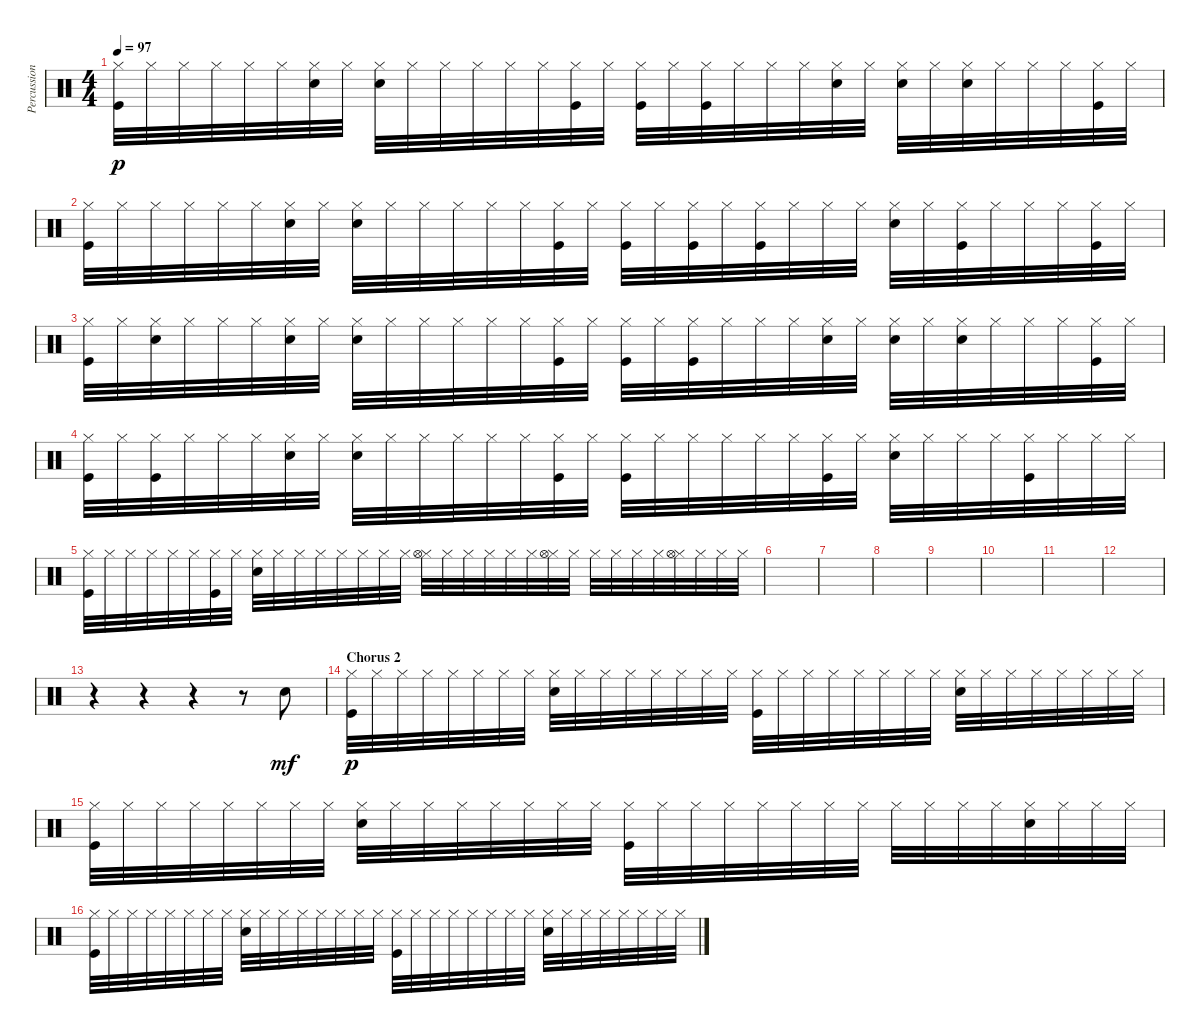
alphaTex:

\track ("Percussion" "Percussion") {instrument percussion}
\staff {score}
\articulation defaults
\ts (4 4)
\tempo 97
\clef neutral
\ks c
("Hi-Hat (closed)" "Kick (hit)").32{dy p} "Hi-Hat (closed)".32 "Hi-Hat (closed)".32 "Hi-Hat (closed)".32 "Hi-Hat (closed)".32 "Hi-Hat (closed)".32 ("Hi-Hat (closed)" "Electric Snare (hit)").32 "Hi-Hat (closed)".32 ("Hi-Hat (closed)" "Electric Snare (hit)").32 "Hi-Hat (closed)".32 "Hi-Hat (closed)".32 "Hi-Hat (closed)".32 "Hi-Hat (closed)".32 "Hi-Hat (closed)".32 ("Hi-Hat (closed)" "Kick (hit)").32 "Hi-Hat (closed)".32 ("Hi-Hat (closed)" "Kick (hit)").32 "Hi-Hat (closed)".32 ("Hi-Hat (closed)" "Kick (hit)").32 "Hi-Hat (closed)".32 "Hi-Hat (closed)".32 "Hi-Hat (closed)".32 ("Hi-Hat (closed)" "Electric Snare (hit)").32 "Hi-Hat (closed)".32 ("Hi-Hat (closed)" "Electric Snare (hit)").32 "Hi-Hat (closed)".32 ("Hi-Hat (closed)" "Electric Snare (hit)").32 "Hi-Hat (closed)".32 "Hi-Hat (closed)".32 "Hi-Hat (closed)".32 ("Hi-Hat (closed)" "Kick (hit)").32 "Hi-Hat (closed)".32 |
("Hi-Hat (closed)" "Kick (hit)").32 "Hi-Hat (closed)".32 "Hi-Hat (closed)".32 "Hi-Hat (closed)".32 "Hi-Hat (closed)".32 "Hi-Hat (closed)".32 ("Hi-Hat (closed)" "Electric Snare (hit)").32 "Hi-Hat (closed)".32 ("Hi-Hat (closed)" "Electric Snare (hit)").32 "Hi-Hat (closed)".32 "Hi-Hat (closed)".32 "Hi-Hat (closed)".32 "Hi-Hat (closed)".32 "Hi-Hat (closed)".32 ("Hi-Hat (closed)" "Kick (hit)").32 "Hi-Hat (closed)".32 ("Hi-Hat (closed)" "Kick (hit)").32 "Hi-Hat (closed)".32 ("Hi-Hat (closed)" "Kick (hit)").32 "Hi-Hat (closed)".32 ("Hi-Hat (closed)" "Kick (hit)").32 "Hi-Hat (closed)".32 "Hi-Hat (closed)".32 "Hi-Hat (closed)".32 ("Hi-Hat (closed)" "Electric Snare (hit)").32 "Hi-Hat (closed)".32 ("Hi-Hat (closed)" "Kick (hit)").32 "Hi-Hat (closed)".32 "Hi-Hat (closed)".32 "Hi-Hat (closed)".32 ("Hi-Hat (closed)" "Kick (hit)").32 "Hi-Hat (closed)".32 |
("Hi-Hat (closed)" "Kick (hit)").32 "Hi-Hat (closed)".32 ("Hi-Hat (closed)" "Electric Snare (hit)").32 "Hi-Hat (closed)".32 "Hi-Hat (closed)".32 "Hi-Hat (closed)".32 ("Hi-Hat (closed)" "Electric Snare (hit)").32 "Hi-Hat (closed)".32 ("Hi-Hat (closed)" "Electric Snare (hit)").32 "Hi-Hat (closed)".32 "Hi-Hat (closed)".32 "Hi-Hat (closed)".32 "Hi-Hat (closed)".32 "Hi-Hat (closed)".32 ("Hi-Hat (closed)" "Kick (hit)").32 "Hi-Hat (closed)".32 ("Hi-Hat (closed)" "Kick (hit)").32 "Hi-Hat (closed)".32 ("Hi-Hat (closed)" "Kick (hit)").32 "Hi-Hat (closed)".32 "Hi-Hat (closed)".32 "Hi-Hat (closed)".32 ("Hi-Hat (closed)" "Electric Snare (hit)").32 "Hi-Hat (closed)".32 ("Hi-Hat (closed)" "Electric Snare (hit)").32 "Hi-Hat (closed)".32 ("Hi-Hat (closed)" "Electric Snare (hit)").32 "Hi-Hat (closed)".32 "Hi-Hat (closed)".32 "Hi-Hat (closed)".32 ("Hi-Hat (closed)" "Kick (hit)").32 "Hi-Hat (closed)".32 |
("Hi-Hat (closed)" "Kick (hit)").32 "Hi-Hat (closed)".32 ("Hi-Hat (closed)" "Kick (hit)").32 "Hi-Hat (closed)".32 "Hi-Hat (closed)".32 "Hi-Hat (closed)".32 ("Hi-Hat (closed)" "Electric Snare (hit)").32 "Hi-Hat (closed)".32 ("Hi-Hat (closed)" "Electric Snare (hit)").32 "Hi-Hat (closed)".32 "Hi-Hat (closed)".32 "Hi-Hat (closed)".32 "Hi-Hat (closed)".32 "Hi-Hat (closed)".32 ("Hi-Hat (closed)" "Kick (hit)").32 "Hi-Hat (closed)".32 ("Hi-Hat (closed)" "Kick (hit)").32 "Hi-Hat (closed)".32 "Hi-Hat (closed)".32 "Hi-Hat (closed)".32 "Hi-Hat (closed)".32 "Hi-Hat (closed)".32 ("Hi-Hat (closed)" "Kick (hit)").32 "Hi-Hat (closed)".32 ("Hi-Hat (closed)" "Electric Snare (hit)").32 "Hi-Hat (closed)".32 "Hi-Hat (closed)".32 "Hi-Hat (closed)".32 ("Hi-Hat (closed)" "Kick (hit)").32 "Hi-Hat (closed)".32 "Hi-Hat (closed)".32 "Hi-Hat (closed)".32 |
("Hi-Hat (closed)" "Kick (hit)").32 "Hi-Hat (closed)".32 "Hi-Hat (closed)".32 "Hi-Hat (closed)".32 "Hi-Hat (closed)".32 "Hi-Hat (closed)".32 ("Hi-Hat (closed)" "Kick (hit)").32 "Hi-Hat (closed)".32 ("Hi-Hat (closed)" "Electric Snare (hit)").32 "Hi-Hat (closed)".32 "Hi-Hat (closed)".32 "Hi-Hat (closed)".32 "Hi-Hat (closed)".32 "Hi-Hat (closed)".32 "Hi-Hat (closed)".32 "Hi-Hat (closed)".32 ("Hi-Hat (closed)" "Hi-Hat (open)").32 "Hi-Hat (closed)".32 "Hi-Hat (closed)".32 "Hi-Hat (closed)".32 "Hi-Hat (closed)".32 "Hi-Hat (closed)".32 ("Hi-Hat (closed)" "Hi-Hat (open)").32 "Hi-Hat (closed)".32 "Hi-Hat (closed)".32 "Hi-Hat (closed)".32 "Hi-Hat (closed)".32 "Hi-Hat (closed)".32 ("Hi-Hat (closed)" "Hi-Hat (open)").32 "Hi-Hat (closed)".32 "Hi-Hat (closed)".32 "Hi-Hat (closed)".32 |
|
|
|
|
|
|
|
r.4 r.4 r.4 r.8 "Electric Snare (hit)".8{dy mf} |
\section ("" "Chorus 2")
("Hi-Hat (closed)" "Kick (hit)").32{dy p} "Hi-Hat (closed)".32 "Hi-Hat (closed)".32 "Hi-Hat (closed)".32 "Hi-Hat (closed)".32 "Hi-Hat (closed)".32 "Hi-Hat (closed)".32 "Hi-Hat (closed)".32 ("Hi-Hat (closed)" "Electric Snare (hit)").32 "Hi-Hat (closed)".32 "Hi-Hat (closed)".32 "Hi-Hat (closed)".32 "Hi-Hat (closed)".32 "Hi-Hat (closed)".32 "Hi-Hat (closed)".32 "Hi-Hat (closed)".32 ("Hi-Hat (closed)" "Kick (hit)").32 "Hi-Hat (closed)".32 "Hi-Hat (closed)".32 "Hi-Hat (closed)".32 "Hi-Hat (closed)".32 "Hi-Hat (closed)".32 "Hi-Hat (closed)".32 "Hi-Hat (closed)".32 ("Hi-Hat (closed)" "Electric Snare (hit)").32 "Hi-Hat (closed)".32 "Hi-Hat (closed)".32 "Hi-Hat (closed)".32 "Hi-Hat (closed)".32 "Hi-Hat (closed)".32 "Hi-Hat (closed)".32 "Hi-Hat (closed)".32 |
("Hi-Hat (closed)" "Kick (hit)").32 "Hi-Hat (closed)".32 "Hi-Hat (closed)".32 "Hi-Hat (closed)".32 "Hi-Hat (closed)".32 "Hi-Hat (closed)".32 "Hi-Hat (closed)".32 "Hi-Hat (closed)".32 ("Hi-Hat (closed)" "Electric Snare (hit)").32 "Hi-Hat (closed)".32 "Hi-Hat (closed)".32 "Hi-Hat (closed)".32 "Hi-Hat (closed)".32 "Hi-Hat (closed)".32 "Hi-Hat (closed)".32 "Hi-Hat (closed)".32 ("Hi-Hat (closed)" "Kick (hit)").32 "Hi-Hat (closed)".32 "Hi-Hat (closed)".32 "Hi-Hat (closed)".32 "Hi-Hat (closed)".32 "Hi-Hat (closed)".32 "Hi-Hat (closed)".32 "Hi-Hat (closed)".32 "Hi-Hat (closed)".32 "Hi-Hat (closed)".32 "Hi-Hat (closed)".32 "Hi-Hat (closed)".32 ("Hi-Hat (closed)" "Electric Snare (hit)").32 "Hi-Hat (closed)".32 "Hi-Hat (closed)".32 "Hi-Hat (closed)".32 |
("Hi-Hat (closed)" "Kick (hit)").32 "Hi-Hat (closed)".32 "Hi-Hat (closed)".32 "Hi-Hat (closed)".32 "Hi-Hat (closed)".32 "Hi-Hat (closed)".32 "Hi-Hat (closed)".32 "Hi-Hat (closed)".32 ("Hi-Hat (closed)" "Electric Snare (hit)").32 "Hi-Hat (closed)".32 "Hi-Hat (closed)".32 "Hi-Hat (closed)".32 "Hi-Hat (closed)".32 "Hi-Hat (closed)".32 "Hi-Hat (closed)".32 "Hi-Hat (closed)".32 ("Hi-Hat (closed)" "Kick (hit)").32 "Hi-Hat (closed)".32 "Hi-Hat (closed)".32 "Hi-Hat (closed)".32 "Hi-Hat (closed)".32 "Hi-Hat (closed)".32 "Hi-Hat (closed)".32 "Hi-Hat (closed)".32 ("Hi-Hat (closed)" "Electric Snare (hit)").32 "Hi-Hat (closed)".32 "Hi-Hat (closed)".32 "Hi-Hat (closed)".32 "Hi-Hat (closed)".32 "Hi-Hat (closed)".32 "Hi-Hat (closed)".32 "Hi-Hat (closed)".32
